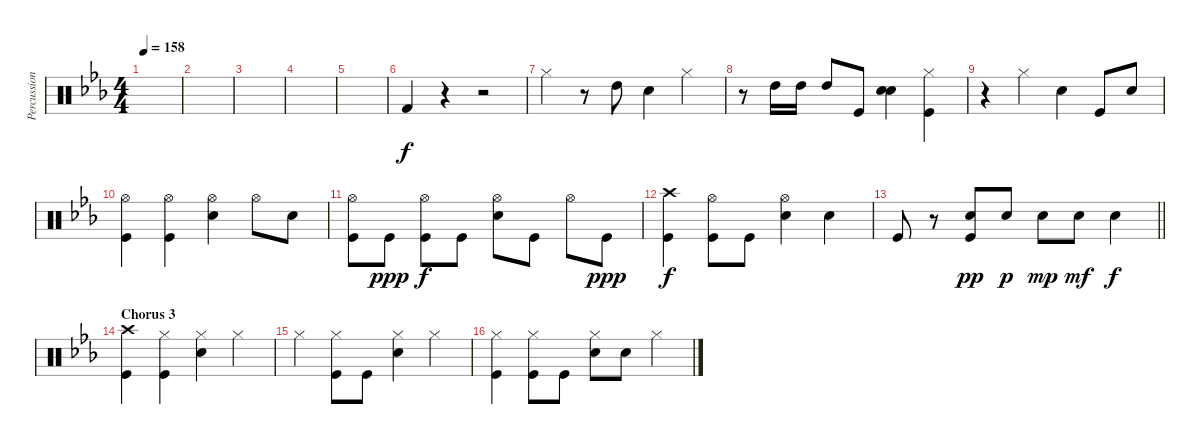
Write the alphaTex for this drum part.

\track ("Percussion" "Percussion") {instrument percussion}
\staff {score}
\articulation defaults
\ts (4 4)
\tempo 158
\clef neutral
\ks eb
|
|
|
|
|
"Kick (hit) 2".4 r.4 r.2 |
"Hi-Hat (closed)".4 r.8 "High Tom (hit)".8 "Snare (hit) 2".4 "Hi-Hat (closed)".4 |
r.8 "High Tom (hit)".16 "High Tom (hit)".16 "High Tom (hit)".8 "Kick (hit)".8 ("Snare (hit) 2" "Snare (hit) 2").4 ("Hi-Hat (closed)" "Kick (hit)").4 |
r.4 "Hi-Hat (closed)".4 "Snare (hit) 2".4 "Kick (hit)".8 "Snare (hit) 2".8 |
("Hi-Hat (open)" "Kick (hit)").4 ("Hi-Hat (open)" "Kick (hit)").4 ("Hi-Hat (open)" "Snare (hit) 2").4 "Hi-Hat (open)".8 "Snare (hit) 2".8 |
("Kick (hit)" "Hi-Hat (open)").8 "Kick (hit)".8{dy ppp} ("Kick (hit)" "Hi-Hat (open)").8{dy f} "Kick (hit)".8 ("Snare (hit) 2" "Hi-Hat (open)").8 "Kick (hit)".8 "Hi-Hat (open)".8 "Kick (hit)".8{dy ppp} |
("Kick (hit)" "Crash high (hit)").4{dy f} ("Hi-Hat (open)" "Kick (hit)").8 "Kick (hit)".8 ("Hi-Hat (open)" "Snare (hit) 2").4 "Snare (hit) 2".4 |
\barLineRight lightlight "Kick (hit)".8
r.8 ("Snare (hit) 2" "Kick (hit)").8{dy pp} "Snare (hit) 2".8{dy p} "Snare (hit) 2".8{dy mp} "Snare (hit) 2".8{dy mf} "Snare (hit) 2".4{dy f} |
\section ("" "Chorus 3")
("Crash high (hit)" "Kick (hit)").4 ("Hi-Hat (closed)" "Kick (hit)").4 ("Hi-Hat (closed)" "Snare (hit) 2").4 "Hi-Hat (closed)".4 |
"Hi-Hat (closed)".4 ("Hi-Hat (closed)" "Kick (hit)").8 "Kick (hit)".8 ("Hi-Hat (closed)" "Snare (hit) 2").4 "Hi-Hat (closed)".4 |
("Hi-Hat (closed)" "Kick (hit)").4 ("Hi-Hat (closed)" "Kick (hit)").8 "Kick (hit)".8 ("Hi-Hat (closed)" "Snare (hit) 2").8 "Snare (hit) 2".8 "Hi-Hat (closed)".4
